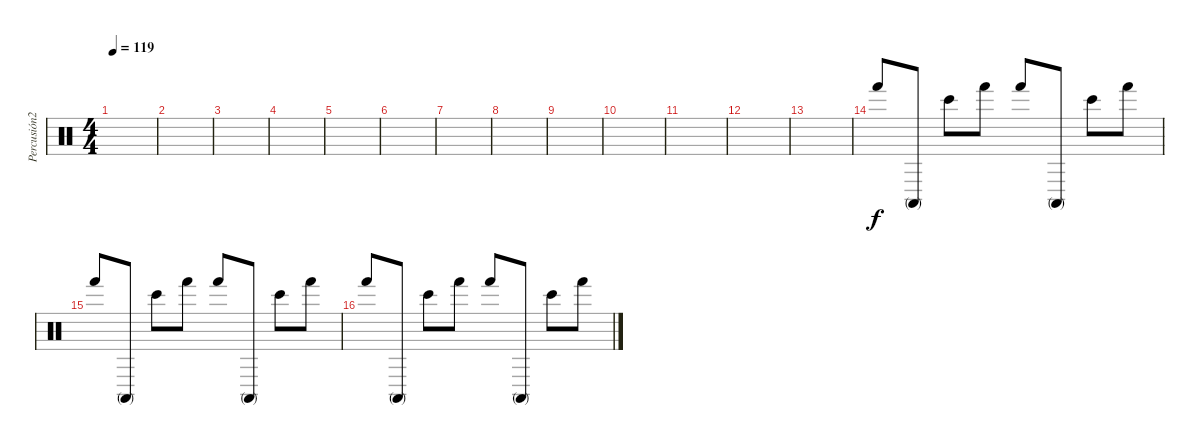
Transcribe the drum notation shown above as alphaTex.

\track ("Percusión2" "Percusión2") {instrument percussion}
\staff {score}
\articulation defaults
\ts (4 4)
\tempo 119
\clef neutral
\ks c
|
|
|
|
|
|
|
|
|
|
|
|
|
"Hand (hit)".8 "Conga high (mute)".8 "Bongo High (hit)".8 "Hand (hit)".8 "Hand (hit)".8 "Conga high (mute)".8 "Bongo High (hit)".8 "Hand (hit)".8 |
"Hand (hit)".8 "Conga high (mute)".8 "Bongo High (hit)".8 "Hand (hit)".8 "Hand (hit)".8 "Conga high (mute)".8 "Bongo High (hit)".8 "Hand (hit)".8 |
"Hand (hit)".8 "Conga high (mute)".8 "Bongo High (hit)".8 "Hand (hit)".8 "Hand (hit)".8 "Conga high (mute)".8 "Bongo High (hit)".8 "Hand (hit)".8
